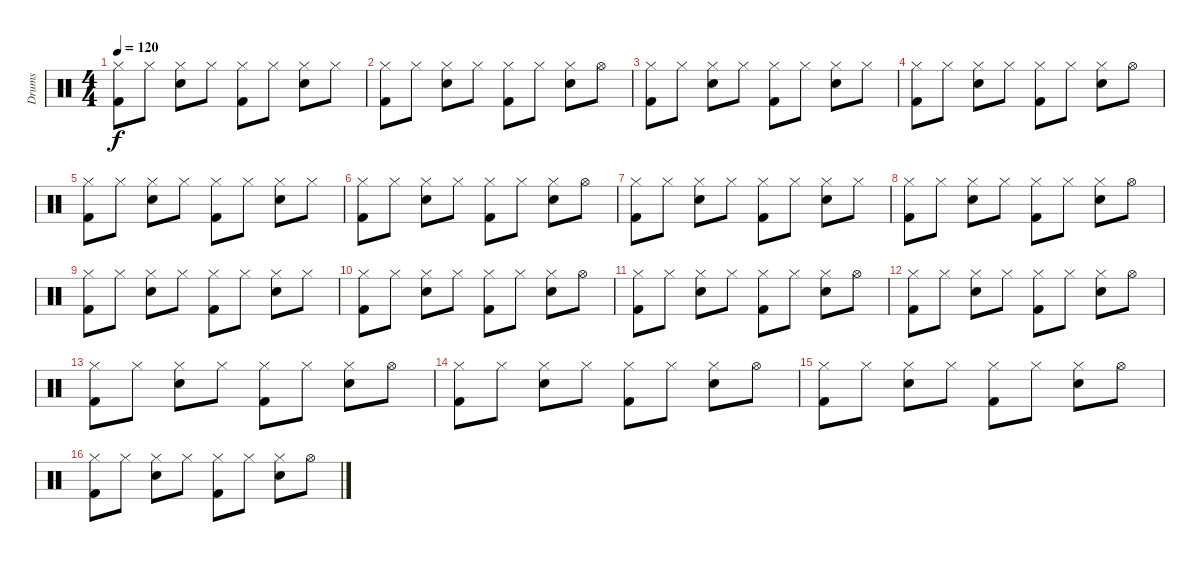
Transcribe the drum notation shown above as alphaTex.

\track ("Drums" "Drums") {instrument percussion}
\staff {score}
\articulation defaults
\ts (4 4)
\tempo 120
\clef neutral
\ks c
("Hi-Hat (closed)" "Kick (hit) 2").8{dy f} "Hi-Hat (closed)".8 ("Hi-Hat (closed)" "Electric Snare (hit)").8 "Hi-Hat (closed)".8 ("Hi-Hat (closed)" "Kick (hit) 2").8 "Hi-Hat (closed)".8 ("Hi-Hat (closed)" "Electric Snare (hit)").8 "Hi-Hat (closed)".8 |
("Hi-Hat (closed)" "Kick (hit) 2").8 "Hi-Hat (closed)".8 ("Hi-Hat (closed)" "Electric Snare (hit)").8 "Hi-Hat (closed)".8 ("Hi-Hat (closed)" "Kick (hit) 2").8 "Hi-Hat (closed)".8 ("Hi-Hat (closed)" "Electric Snare (hit)").8 "Hi-Hat (open)".8 |
("Hi-Hat (closed)" "Kick (hit) 2").8 "Hi-Hat (closed)".8 ("Hi-Hat (closed)" "Electric Snare (hit)").8 "Hi-Hat (closed)".8 ("Hi-Hat (closed)" "Kick (hit) 2").8 "Hi-Hat (closed)".8 ("Hi-Hat (closed)" "Electric Snare (hit)").8 "Hi-Hat (closed)".8 |
("Hi-Hat (closed)" "Kick (hit) 2").8 "Hi-Hat (closed)".8 ("Hi-Hat (closed)" "Electric Snare (hit)").8 "Hi-Hat (closed)".8 ("Hi-Hat (closed)" "Kick (hit) 2").8 "Hi-Hat (closed)".8 ("Hi-Hat (closed)" "Electric Snare (hit)").8 "Hi-Hat (open)".8 |
("Hi-Hat (closed)" "Kick (hit) 2").8 "Hi-Hat (closed)".8 ("Hi-Hat (closed)" "Electric Snare (hit)").8 "Hi-Hat (closed)".8 ("Hi-Hat (closed)" "Kick (hit) 2").8 "Hi-Hat (closed)".8 ("Hi-Hat (closed)" "Electric Snare (hit)").8 "Hi-Hat (closed)".8 |
("Hi-Hat (closed)" "Kick (hit) 2").8 "Hi-Hat (closed)".8 ("Hi-Hat (closed)" "Electric Snare (hit)").8 "Hi-Hat (closed)".8 ("Hi-Hat (closed)" "Kick (hit) 2").8 "Hi-Hat (closed)".8 ("Hi-Hat (closed)" "Electric Snare (hit)").8 "Hi-Hat (open)".8 |
("Hi-Hat (closed)" "Kick (hit) 2").8 "Hi-Hat (closed)".8 ("Hi-Hat (closed)" "Electric Snare (hit)").8 "Hi-Hat (closed)".8 ("Hi-Hat (closed)" "Kick (hit) 2").8 "Hi-Hat (closed)".8 ("Hi-Hat (closed)" "Electric Snare (hit)").8 "Hi-Hat (closed)".8 |
("Hi-Hat (closed)" "Kick (hit) 2").8 "Hi-Hat (closed)".8 ("Hi-Hat (closed)" "Electric Snare (hit)").8 "Hi-Hat (closed)".8 ("Hi-Hat (closed)" "Kick (hit) 2").8 "Hi-Hat (closed)".8 ("Hi-Hat (closed)" "Electric Snare (hit)").8 "Hi-Hat (open)".8 |
("Hi-Hat (closed)" "Kick (hit) 2").8 "Hi-Hat (closed)".8 ("Hi-Hat (closed)" "Electric Snare (hit)").8 "Hi-Hat (closed)".8 ("Hi-Hat (closed)" "Kick (hit) 2").8 "Hi-Hat (closed)".8 ("Hi-Hat (closed)" "Electric Snare (hit)").8 "Hi-Hat (closed)".8 |
("Hi-Hat (closed)" "Kick (hit) 2").8 "Hi-Hat (closed)".8 ("Hi-Hat (closed)" "Electric Snare (hit)").8 "Hi-Hat (closed)".8 ("Hi-Hat (closed)" "Kick (hit) 2").8 "Hi-Hat (closed)".8 ("Hi-Hat (closed)" "Electric Snare (hit)").8 "Hi-Hat (open)".8 |
("Hi-Hat (closed)" "Kick (hit) 2").8 "Hi-Hat (closed)".8 ("Hi-Hat (closed)" "Electric Snare (hit)").8 "Hi-Hat (closed)".8 ("Hi-Hat (closed)" "Kick (hit) 2").8 "Hi-Hat (closed)".8 ("Hi-Hat (closed)" "Electric Snare (hit)").8 "Hi-Hat (open)".8 |
("Hi-Hat (closed)" "Kick (hit) 2").8 "Hi-Hat (closed)".8 ("Hi-Hat (closed)" "Electric Snare (hit)").8 "Hi-Hat (closed)".8 ("Hi-Hat (closed)" "Kick (hit) 2").8 "Hi-Hat (closed)".8 ("Hi-Hat (closed)" "Electric Snare (hit)").8 "Hi-Hat (open)".8 |
("Hi-Hat (closed)" "Kick (hit) 2").8 "Hi-Hat (closed)".8 ("Hi-Hat (closed)" "Electric Snare (hit)").8 "Hi-Hat (closed)".8 ("Hi-Hat (closed)" "Kick (hit) 2").8 "Hi-Hat (closed)".8 ("Hi-Hat (closed)" "Electric Snare (hit)").8 "Hi-Hat (open)".8 |
("Hi-Hat (closed)" "Kick (hit) 2").8 "Hi-Hat (closed)".8 ("Hi-Hat (closed)" "Electric Snare (hit)").8 "Hi-Hat (closed)".8 ("Hi-Hat (closed)" "Kick (hit) 2").8 "Hi-Hat (closed)".8 ("Hi-Hat (closed)" "Electric Snare (hit)").8 "Hi-Hat (open)".8 |
("Hi-Hat (closed)" "Kick (hit) 2").8 "Hi-Hat (closed)".8 ("Hi-Hat (closed)" "Electric Snare (hit)").8 "Hi-Hat (closed)".8 ("Hi-Hat (closed)" "Kick (hit) 2").8 "Hi-Hat (closed)".8 ("Hi-Hat (closed)" "Electric Snare (hit)").8 "Hi-Hat (open)".8 |
("Hi-Hat (closed)" "Kick (hit) 2").8 "Hi-Hat (closed)".8 ("Hi-Hat (closed)" "Electric Snare (hit)").8 "Hi-Hat (closed)".8 ("Hi-Hat (closed)" "Kick (hit) 2").8 "Hi-Hat (closed)".8 ("Hi-Hat (closed)" "Electric Snare (hit)").8 "Hi-Hat (open)".8
